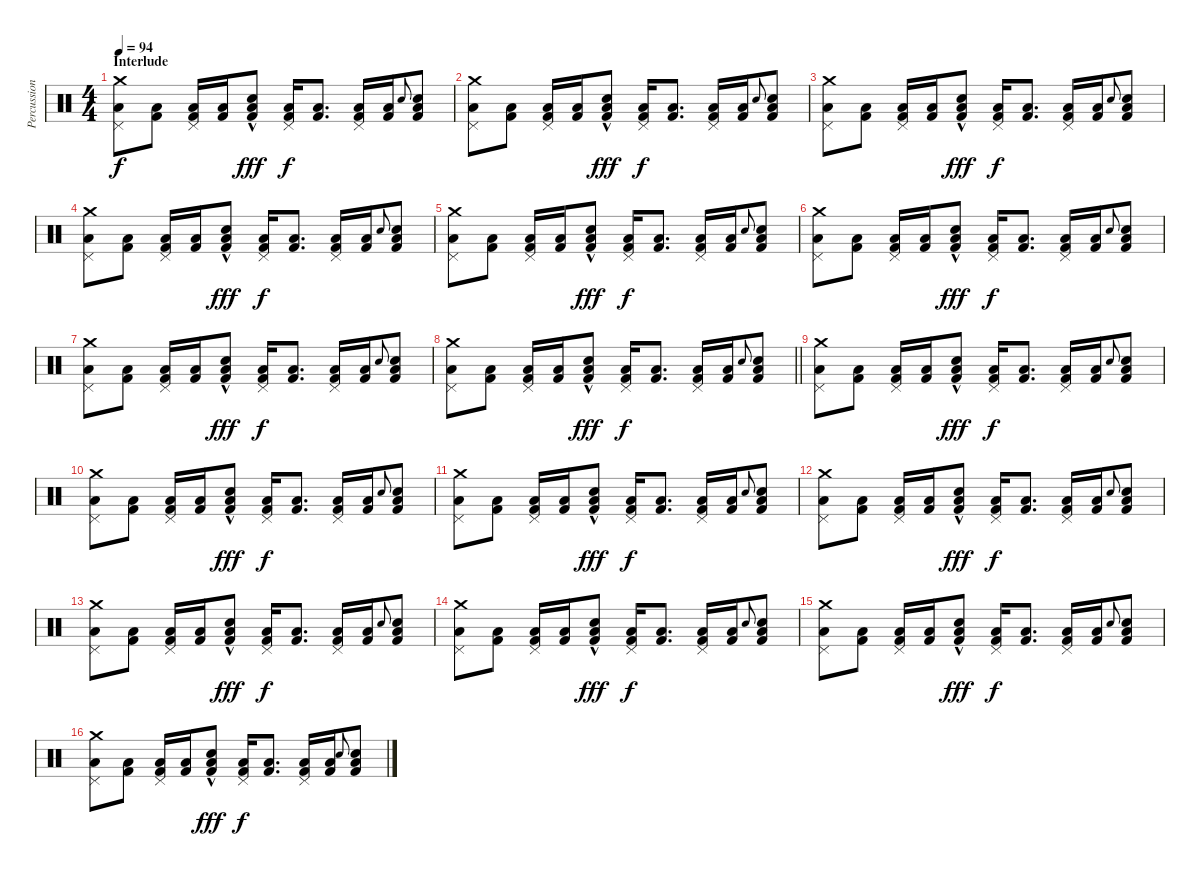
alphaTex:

\track ("Percussion" "Percussion") {instrument percussion}
\staff {score}
\articulation defaults
\ts (4 4)
\section ("" "Interlude")
\tempo 94
\clef neutral
\ks c
("Crash medium (hit)" "Pedal Hi-Hat (hit)" "Low Floor Tom (hit)").8{dy f} ("Kick (hit) 2" "Low Floor Tom (hit)").8 ("Kick (hit) 2" "Pedal Hi-Hat (hit)" "Low Floor Tom (hit)").16 ("Kick (hit) 2" "Low Floor Tom (hit)").16 ("Snare (hit) 2"{hac} "Kick (hit) 2" "Low Floor Tom (hit)").8{dy fff} ("Kick (hit) 2" "Pedal Hi-Hat (hit)" "Low Floor Tom (hit)").16{dy f} ("Kick (hit) 2" "Low Floor Tom (hit)").8{d} ("Kick (hit) 2" "Pedal Hi-Hat (hit)" "Low Floor Tom (hit)").16 ("Kick (hit) 2" "Low Floor Tom (hit)").16 "Snare (hit) 2".8{gr onbeat} ("Snare (hit) 2" "Kick (hit) 2" "Low Floor Tom (hit)").8 |
("Crash medium (hit)" "Pedal Hi-Hat (hit)" "Low Floor Tom (hit)").8 ("Kick (hit) 2" "Low Floor Tom (hit)").8 ("Kick (hit) 2" "Pedal Hi-Hat (hit)" "Low Floor Tom (hit)").16 ("Kick (hit) 2" "Low Floor Tom (hit)").16 ("Snare (hit) 2"{hac} "Kick (hit) 2" "Low Floor Tom (hit)").8{dy fff} ("Kick (hit) 2" "Pedal Hi-Hat (hit)" "Low Floor Tom (hit)").16{dy f} ("Kick (hit) 2" "Low Floor Tom (hit)").8{d} ("Kick (hit) 2" "Pedal Hi-Hat (hit)" "Low Floor Tom (hit)").16 ("Kick (hit) 2" "Low Floor Tom (hit)").16 "Snare (hit) 2".8{gr onbeat} ("Snare (hit) 2" "Kick (hit) 2" "Low Floor Tom (hit)").8 |
("Crash medium (hit)" "Pedal Hi-Hat (hit)" "Low Floor Tom (hit)").8 ("Kick (hit) 2" "Low Floor Tom (hit)").8 ("Kick (hit) 2" "Pedal Hi-Hat (hit)" "Low Floor Tom (hit)").16 ("Kick (hit) 2" "Low Floor Tom (hit)").16 ("Snare (hit) 2"{hac} "Kick (hit) 2" "Low Floor Tom (hit)").8{dy fff} ("Kick (hit) 2" "Pedal Hi-Hat (hit)" "Low Floor Tom (hit)").16{dy f} ("Kick (hit) 2" "Low Floor Tom (hit)").8{d} ("Kick (hit) 2" "Pedal Hi-Hat (hit)" "Low Floor Tom (hit)").16 ("Kick (hit) 2" "Low Floor Tom (hit)").16 "Snare (hit) 2".8{gr onbeat} ("Snare (hit) 2" "Kick (hit) 2" "Low Floor Tom (hit)").8 |
("Crash medium (hit)" "Pedal Hi-Hat (hit)" "Low Floor Tom (hit)").8 ("Kick (hit) 2" "Low Floor Tom (hit)").8 ("Kick (hit) 2" "Pedal Hi-Hat (hit)" "Low Floor Tom (hit)").16 ("Kick (hit) 2" "Low Floor Tom (hit)").16 ("Snare (hit) 2"{hac} "Kick (hit) 2" "Low Floor Tom (hit)").8{dy fff} ("Kick (hit) 2" "Pedal Hi-Hat (hit)" "Low Floor Tom (hit)").16{dy f} ("Kick (hit) 2" "Low Floor Tom (hit)").8{d} ("Kick (hit) 2" "Pedal Hi-Hat (hit)" "Low Floor Tom (hit)").16 ("Kick (hit) 2" "Low Floor Tom (hit)").16 "Snare (hit) 2".8{gr onbeat} ("Snare (hit) 2" "Kick (hit) 2" "Low Floor Tom (hit)").8 |
("Crash medium (hit)" "Pedal Hi-Hat (hit)" "Low Floor Tom (hit)").8 ("Kick (hit) 2" "Low Floor Tom (hit)").8 ("Kick (hit) 2" "Pedal Hi-Hat (hit)" "Low Floor Tom (hit)").16 ("Kick (hit) 2" "Low Floor Tom (hit)").16 ("Snare (hit) 2"{hac} "Kick (hit) 2" "Low Floor Tom (hit)").8{dy fff} ("Kick (hit) 2" "Pedal Hi-Hat (hit)" "Low Floor Tom (hit)").16{dy f} ("Kick (hit) 2" "Low Floor Tom (hit)").8{d} ("Kick (hit) 2" "Pedal Hi-Hat (hit)" "Low Floor Tom (hit)").16 ("Kick (hit) 2" "Low Floor Tom (hit)").16 "Snare (hit) 2".8{gr onbeat} ("Snare (hit) 2" "Kick (hit) 2" "Low Floor Tom (hit)").8 |
("Crash medium (hit)" "Pedal Hi-Hat (hit)" "Low Floor Tom (hit)").8 ("Kick (hit) 2" "Low Floor Tom (hit)").8 ("Kick (hit) 2" "Pedal Hi-Hat (hit)" "Low Floor Tom (hit)").16 ("Kick (hit) 2" "Low Floor Tom (hit)").16 ("Snare (hit) 2"{hac} "Kick (hit) 2" "Low Floor Tom (hit)").8{dy fff} ("Kick (hit) 2" "Pedal Hi-Hat (hit)" "Low Floor Tom (hit)").16{dy f} ("Kick (hit) 2" "Low Floor Tom (hit)").8{d} ("Kick (hit) 2" "Pedal Hi-Hat (hit)" "Low Floor Tom (hit)").16 ("Kick (hit) 2" "Low Floor Tom (hit)").16 "Snare (hit) 2".8{gr onbeat} ("Snare (hit) 2" "Kick (hit) 2" "Low Floor Tom (hit)").8 |
("Crash medium (hit)" "Pedal Hi-Hat (hit)" "Low Floor Tom (hit)").8 ("Kick (hit) 2" "Low Floor Tom (hit)").8 ("Kick (hit) 2" "Pedal Hi-Hat (hit)" "Low Floor Tom (hit)").16 ("Kick (hit) 2" "Low Floor Tom (hit)").16 ("Snare (hit) 2"{hac} "Kick (hit) 2" "Low Floor Tom (hit)").8{dy fff} ("Kick (hit) 2" "Pedal Hi-Hat (hit)" "Low Floor Tom (hit)").16{dy f} ("Kick (hit) 2" "Low Floor Tom (hit)").8{d} ("Kick (hit) 2" "Pedal Hi-Hat (hit)" "Low Floor Tom (hit)").16 ("Kick (hit) 2" "Low Floor Tom (hit)").16 "Snare (hit) 2".8{gr onbeat} ("Snare (hit) 2" "Kick (hit) 2" "Low Floor Tom (hit)").8 |
\barLineRight lightlight
("Crash medium (hit)" "Pedal Hi-Hat (hit)" "Low Floor Tom (hit)").8 ("Kick (hit) 2" "Low Floor Tom (hit)").8 ("Kick (hit) 2" "Pedal Hi-Hat (hit)" "Low Floor Tom (hit)").16 ("Kick (hit) 2" "Low Floor Tom (hit)").16 ("Snare (hit) 2"{hac} "Kick (hit) 2" "Low Floor Tom (hit)").8{dy fff} ("Kick (hit) 2" "Pedal Hi-Hat (hit)" "Low Floor Tom (hit)").16{dy f} ("Kick (hit) 2" "Low Floor Tom (hit)").8{d} ("Kick (hit) 2" "Pedal Hi-Hat (hit)" "Low Floor Tom (hit)").16 ("Kick (hit) 2" "Low Floor Tom (hit)").16 "Snare (hit) 2".8{gr onbeat} ("Snare (hit) 2" "Kick (hit) 2" "Low Floor Tom (hit)").8 |
("Crash medium (hit)" "Pedal Hi-Hat (hit)" "Low Floor Tom (hit)").8 ("Kick (hit) 2" "Low Floor Tom (hit)").8 ("Kick (hit) 2" "Pedal Hi-Hat (hit)" "Low Floor Tom (hit)").16 ("Kick (hit) 2" "Low Floor Tom (hit)").16 ("Snare (hit) 2"{hac} "Kick (hit) 2" "Low Floor Tom (hit)").8{dy fff} ("Kick (hit) 2" "Pedal Hi-Hat (hit)" "Low Floor Tom (hit)").16{dy f} ("Kick (hit) 2" "Low Floor Tom (hit)").8{d} ("Kick (hit) 2" "Pedal Hi-Hat (hit)" "Low Floor Tom (hit)").16 ("Kick (hit) 2" "Low Floor Tom (hit)").16 "Snare (hit) 2".8{gr onbeat} ("Snare (hit) 2" "Kick (hit) 2" "Low Floor Tom (hit)").8 |
("Crash medium (hit)" "Pedal Hi-Hat (hit)" "Low Floor Tom (hit)").8 ("Kick (hit) 2" "Low Floor Tom (hit)").8 ("Kick (hit) 2" "Pedal Hi-Hat (hit)" "Low Floor Tom (hit)").16 ("Kick (hit) 2" "Low Floor Tom (hit)").16 ("Snare (hit) 2"{hac} "Kick (hit) 2" "Low Floor Tom (hit)").8{dy fff} ("Kick (hit) 2" "Pedal Hi-Hat (hit)" "Low Floor Tom (hit)").16{dy f} ("Kick (hit) 2" "Low Floor Tom (hit)").8{d} ("Kick (hit) 2" "Pedal Hi-Hat (hit)" "Low Floor Tom (hit)").16 ("Kick (hit) 2" "Low Floor Tom (hit)").16 "Snare (hit) 2".8{gr onbeat} ("Snare (hit) 2" "Kick (hit) 2" "Low Floor Tom (hit)").8 |
("Crash medium (hit)" "Pedal Hi-Hat (hit)" "Low Floor Tom (hit)").8 ("Kick (hit) 2" "Low Floor Tom (hit)").8 ("Kick (hit) 2" "Pedal Hi-Hat (hit)" "Low Floor Tom (hit)").16 ("Kick (hit) 2" "Low Floor Tom (hit)").16 ("Snare (hit) 2"{hac} "Kick (hit) 2" "Low Floor Tom (hit)").8{dy fff} ("Kick (hit) 2" "Pedal Hi-Hat (hit)" "Low Floor Tom (hit)").16{dy f} ("Kick (hit) 2" "Low Floor Tom (hit)").8{d} ("Kick (hit) 2" "Pedal Hi-Hat (hit)" "Low Floor Tom (hit)").16 ("Kick (hit) 2" "Low Floor Tom (hit)").16 "Snare (hit) 2".8{gr onbeat} ("Snare (hit) 2" "Kick (hit) 2" "Low Floor Tom (hit)").8 |
("Crash medium (hit)" "Pedal Hi-Hat (hit)" "Low Floor Tom (hit)").8 ("Kick (hit) 2" "Low Floor Tom (hit)").8 ("Kick (hit) 2" "Pedal Hi-Hat (hit)" "Low Floor Tom (hit)").16 ("Kick (hit) 2" "Low Floor Tom (hit)").16 ("Snare (hit) 2"{hac} "Kick (hit) 2" "Low Floor Tom (hit)").8{dy fff} ("Kick (hit) 2" "Pedal Hi-Hat (hit)" "Low Floor Tom (hit)").16{dy f} ("Kick (hit) 2" "Low Floor Tom (hit)").8{d} ("Kick (hit) 2" "Pedal Hi-Hat (hit)" "Low Floor Tom (hit)").16 ("Kick (hit) 2" "Low Floor Tom (hit)").16 "Snare (hit) 2".8{gr onbeat} ("Snare (hit) 2" "Kick (hit) 2" "Low Floor Tom (hit)").8 |
("Crash medium (hit)" "Pedal Hi-Hat (hit)" "Low Floor Tom (hit)").8 ("Kick (hit) 2" "Low Floor Tom (hit)").8 ("Kick (hit) 2" "Pedal Hi-Hat (hit)" "Low Floor Tom (hit)").16 ("Kick (hit) 2" "Low Floor Tom (hit)").16 ("Snare (hit) 2"{hac} "Kick (hit) 2" "Low Floor Tom (hit)").8{dy fff} ("Kick (hit) 2" "Pedal Hi-Hat (hit)" "Low Floor Tom (hit)").16{dy f} ("Kick (hit) 2" "Low Floor Tom (hit)").8{d} ("Kick (hit) 2" "Pedal Hi-Hat (hit)" "Low Floor Tom (hit)").16 ("Kick (hit) 2" "Low Floor Tom (hit)").16 "Snare (hit) 2".8{gr onbeat} ("Snare (hit) 2" "Kick (hit) 2" "Low Floor Tom (hit)").8 |
("Crash medium (hit)" "Pedal Hi-Hat (hit)" "Low Floor Tom (hit)").8 ("Kick (hit) 2" "Low Floor Tom (hit)").8 ("Kick (hit) 2" "Pedal Hi-Hat (hit)" "Low Floor Tom (hit)").16 ("Kick (hit) 2" "Low Floor Tom (hit)").16 ("Snare (hit) 2"{hac} "Kick (hit) 2" "Low Floor Tom (hit)").8{dy fff} ("Kick (hit) 2" "Pedal Hi-Hat (hit)" "Low Floor Tom (hit)").16{dy f} ("Kick (hit) 2" "Low Floor Tom (hit)").8{d} ("Kick (hit) 2" "Pedal Hi-Hat (hit)" "Low Floor Tom (hit)").16 ("Kick (hit) 2" "Low Floor Tom (hit)").16 "Snare (hit) 2".8{gr onbeat} ("Snare (hit) 2" "Kick (hit) 2" "Low Floor Tom (hit)").8 |
("Crash medium (hit)" "Pedal Hi-Hat (hit)" "Low Floor Tom (hit)").8 ("Kick (hit) 2" "Low Floor Tom (hit)").8 ("Kick (hit) 2" "Pedal Hi-Hat (hit)" "Low Floor Tom (hit)").16 ("Kick (hit) 2" "Low Floor Tom (hit)").16 ("Snare (hit) 2"{hac} "Kick (hit) 2" "Low Floor Tom (hit)").8{dy fff} ("Kick (hit) 2" "Pedal Hi-Hat (hit)" "Low Floor Tom (hit)").16{dy f} ("Kick (hit) 2" "Low Floor Tom (hit)").8{d} ("Kick (hit) 2" "Pedal Hi-Hat (hit)" "Low Floor Tom (hit)").16 ("Kick (hit) 2" "Low Floor Tom (hit)").16 "Snare (hit) 2".8{gr onbeat} ("Snare (hit) 2" "Kick (hit) 2" "Low Floor Tom (hit)").8 |
("Crash medium (hit)" "Pedal Hi-Hat (hit)" "Low Floor Tom (hit)").8 ("Kick (hit) 2" "Low Floor Tom (hit)").8 ("Kick (hit) 2" "Pedal Hi-Hat (hit)" "Low Floor Tom (hit)").16 ("Kick (hit) 2" "Low Floor Tom (hit)").16 ("Snare (hit) 2"{hac} "Kick (hit) 2" "Low Floor Tom (hit)").8{dy fff} ("Kick (hit) 2" "Pedal Hi-Hat (hit)" "Low Floor Tom (hit)").16{dy f} ("Kick (hit) 2" "Low Floor Tom (hit)").8{d} ("Kick (hit) 2" "Pedal Hi-Hat (hit)" "Low Floor Tom (hit)").16 ("Kick (hit) 2" "Low Floor Tom (hit)").16 "Snare (hit) 2".8{gr onbeat} ("Snare (hit) 2" "Kick (hit) 2" "Low Floor Tom (hit)").8
